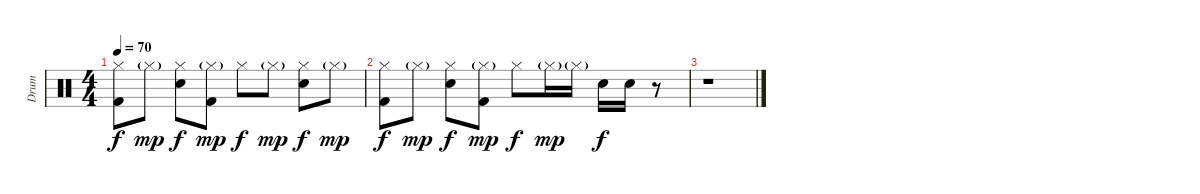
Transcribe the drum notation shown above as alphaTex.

\track ("Drum" "Drum") {instrument percussion}
\staff {score}
\articulation defaults
\ts (4 4)
\tempo 70
\clef neutral
\ks c
("Hi-Hat (closed)" "Kick (hit) 2").8{dy f} "Hi-Hat (closed)"{g}.8{dy mp} ("Hi-Hat (closed)" "Snare (hit) 2").8{dy f} ("Hi-Hat (closed)"{g} "Kick (hit) 2").8{dy mp} "Hi-Hat (closed)".8{dy f} "Hi-Hat (closed)"{g}.8{dy mp} ("Hi-Hat (closed)" "Snare (hit) 2").8{dy f} "Hi-Hat (closed)"{g}.8{dy mp} |
("Hi-Hat (closed)" "Kick (hit) 2").8{dy f} "Hi-Hat (closed)"{g}.8{dy mp} ("Hi-Hat (closed)" "Snare (hit) 2").8{dy f} ("Hi-Hat (closed)"{g} "Kick (hit) 2").8{dy mp} "Hi-Hat (closed)".8{dy f} "Hi-Hat (closed)"{g}.16{dy mp} "Hi-Hat (closed)"{g}.16 "Snare (hit) 2".16{dy f} "Snare (hit) 2".16 r.8 |
r.1
